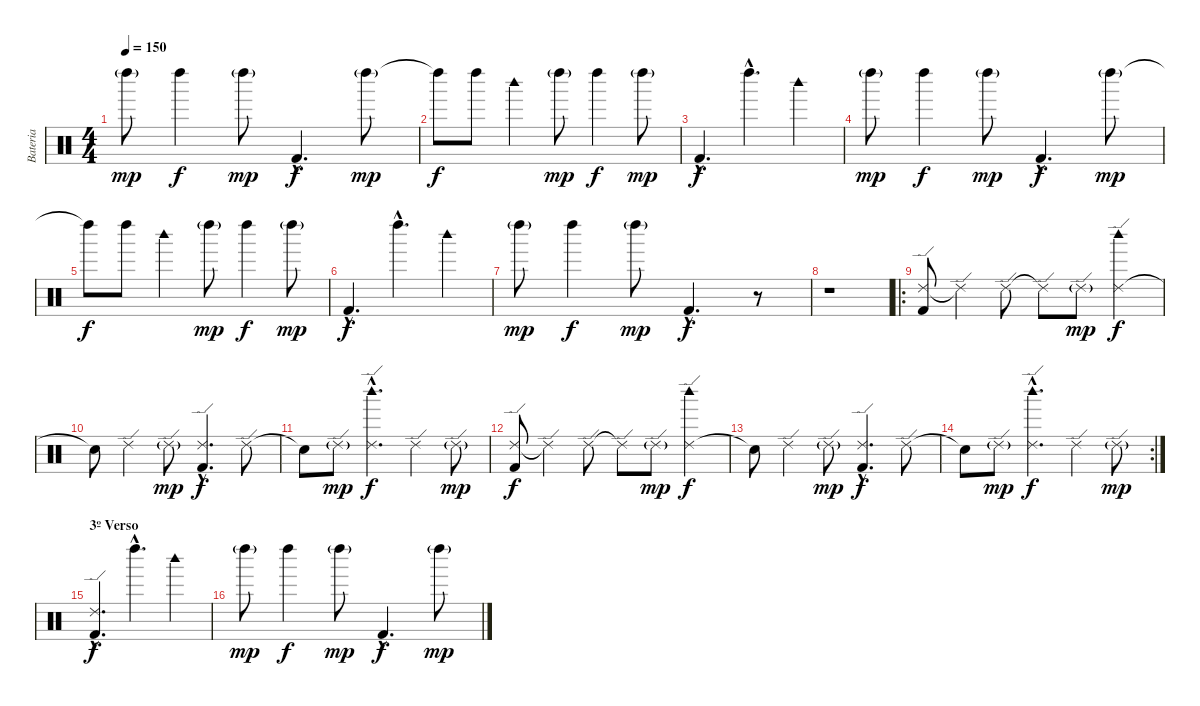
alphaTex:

\track ("Bateria" "Bateria") {instrument percussion}
\staff {score}
\articulation defaults
\ts (4 4)
\tempo 150
\clef neutral
\ks c "Left Maraca (hit)"{g}.8{dy mp} "Left Maraca (hit)".4{dy f} "Left Maraca (hit)"{g}.8{dy mp} "Kick (hit) 2"{hac}.4{d dy f} "Left Maraca (hit)"{g}.8{dy mp}
|
"Left Maraca (hit)"{t}.8{dy f} "Left Maraca (hit)".8 "Woodblock high (hit)".4 "Left Maraca (hit)"{g}.8{dy mp} "Left Maraca (hit)".4{dy f} "Left Maraca (hit)"{g}.8{dy mp} |
"Kick (hit) 2"{hac}.4{d dy f} "Left Maraca (hit)"{hac}.4{d} "Woodblock high (hit)".4 |
"Left Maraca (hit)"{g}.8{dy mp} "Left Maraca (hit)".4{dy f} "Left Maraca (hit)"{g}.8{dy mp} "Kick (hit) 2"{hac}.4{d dy f} "Left Maraca (hit)"{g}.8{dy mp} |
"Left Maraca (hit)"{t}.8{dy f} "Left Maraca (hit)".8 "Woodblock high (hit)".4 "Left Maraca (hit)"{g}.8{dy mp} "Left Maraca (hit)".4{dy f} "Left Maraca (hit)"{g}.8{dy mp} |
"Kick (hit) 2"{hac}.4{d dy f} "Left Maraca (hit)"{hac}.4{d} "Woodblock high (hit)".4 |
"Left Maraca (hit)"{g}.8{dy mp} "Left Maraca (hit)".4{dy f} "Left Maraca (hit)"{g}.8{dy mp} "Kick (hit) 2"{hac}.4{d dy f} r.8 |
r.1 |
\ro
("Ride (edge) 2" "Kick (hit) 2").8 "Ride (edge) 2"{t}.4 "Ride (edge) 2".8 "Ride (edge) 2"{t}.8 "Ride (edge) 2"{g}.8{dy mp} ("Ride (edge) 2" "Woodblock high (hit)").4{dy f} |
"Snare (hit)"{t}.8 "Ride (edge) 2".4 "Ride (edge) 2"{g}.8{dy mp} ("Ride (edge) 2"{hac} "Kick (hit) 2"{hac}).4{d dy f} "Ride (edge) 2".8 |
"Snare (hit)"{t}.8 "Ride (edge) 2"{g}.8{dy mp} ("Ride (edge) 2"{hac} "Woodblock high (hit)"{hac}).4{d dy f} "Ride (edge) 2".4 "Ride (edge) 2"{g}.8{dy mp} |
("Ride (edge) 2" "Kick (hit) 2").8{dy f} "Ride (edge) 2"{t}.4 "Ride (edge) 2".8 "Ride (edge) 2"{t}.8 "Ride (edge) 2"{g}.8{dy mp} ("Ride (edge) 2" "Woodblock high (hit)").4{dy f} |
"Snare (hit)"{t}.8 "Ride (edge) 2".4 "Ride (edge) 2"{g}.8{dy mp} ("Ride (edge) 2"{hac} "Kick (hit) 2"{hac}).4{d dy f} "Ride (edge) 2".8 |
\rc 2 "Snare (hit)"{t}.8 "Ride (edge) 2"{g}.8{dy mp}
("Ride (edge) 2"{hac} "Woodblock high (hit)"{hac}).4{d dy f} "Ride (edge) 2".4 "Ride (edge) 2"{g}.8{dy mp} |
\section ("" "3º Verso")
("Ride (edge) 2"{hac} "Kick (hit) 2"{hac}).4{d dy f} "Left Maraca (hit)"{hac}.4{d} "Woodblock high (hit)".4 |
"Left Maraca (hit)"{g}.8{dy mp} "Left Maraca (hit)".4{dy f} "Left Maraca (hit)"{g}.8{dy mp} "Kick (hit) 2"{hac}.4{d dy f} "Left Maraca (hit)"{g}.8{dy mp}
